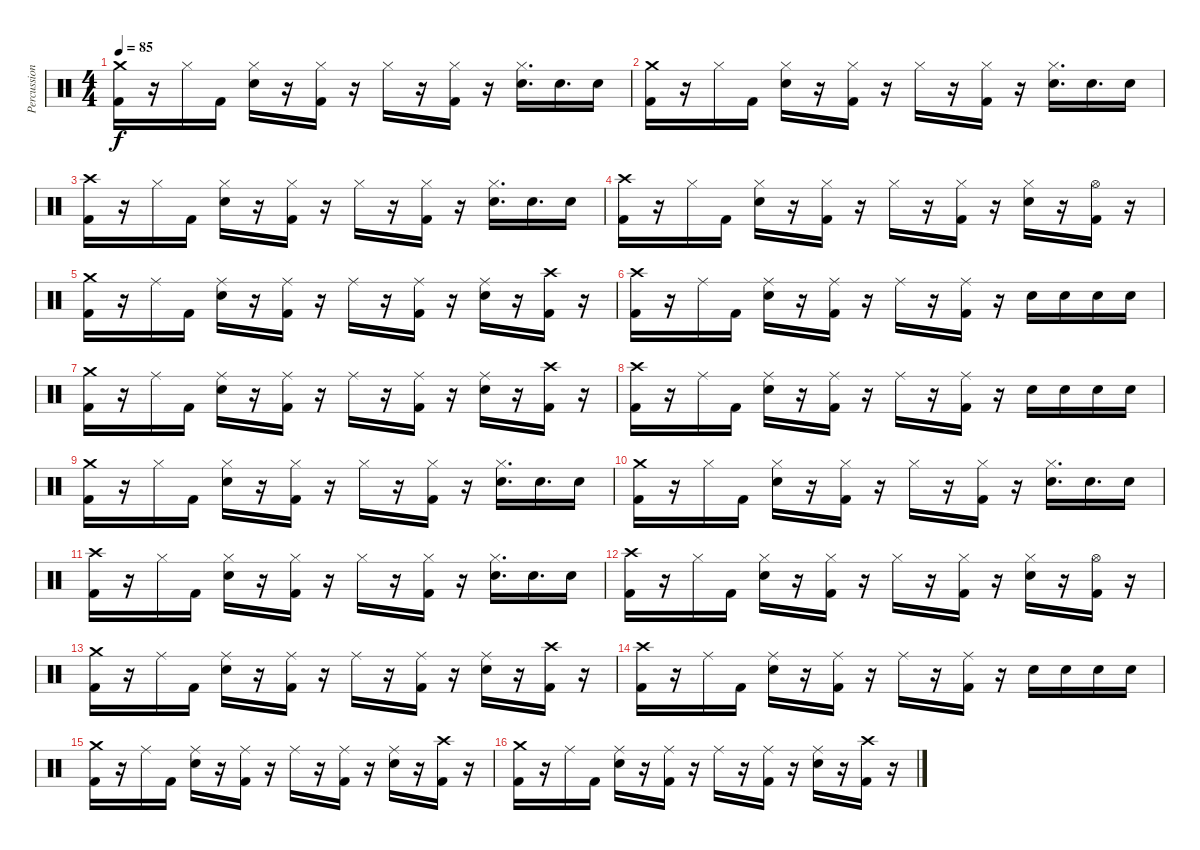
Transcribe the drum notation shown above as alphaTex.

\track ("Percussion" "Percussion") {instrument percussion}
\staff {score}
\articulation defaults
\ts (4 4)
\tempo 85
\clef neutral
\ks c
("Crash medium (hit)" "Kick (hit) 2").16{dy f} r.16 "Hi-Hat (closed)".16 "Kick (hit) 2".16 ("Hi-Hat (closed)" "Electric Snare (hit)").16 r.16 ("Hi-Hat (closed)" "Kick (hit) 2").16 r.16 "Hi-Hat (closed)".16 r.16 ("Hi-Hat (closed)" "Kick (hit) 2").16 r.16 ("Hi-Hat (closed)" "Electric Snare (hit)").16{d} "Electric Snare (hit)".16{d} "Electric Snare (hit)".16 |
("Crash medium (hit)" "Kick (hit) 2").16 r.16 "Hi-Hat (closed)".16 "Kick (hit) 2".16 ("Hi-Hat (closed)" "Electric Snare (hit)").16 r.16 ("Hi-Hat (closed)" "Kick (hit) 2").16 r.16 "Hi-Hat (closed)".16 r.16 ("Hi-Hat (closed)" "Kick (hit) 2").16 r.16 ("Hi-Hat (closed)" "Electric Snare (hit)").16{d} "Electric Snare (hit)".16{d} "Electric Snare (hit)".16 |
("Crash high (hit)" "Kick (hit) 2").16 r.16 "Hi-Hat (closed)".16 "Kick (hit) 2".16 ("Hi-Hat (closed)" "Electric Snare (hit)").16 r.16 ("Hi-Hat (closed)" "Kick (hit) 2").16 r.16 "Hi-Hat (closed)".16 r.16 ("Hi-Hat (closed)" "Kick (hit) 2").16 r.16 ("Hi-Hat (closed)" "Electric Snare (hit)").16{d} "Electric Snare (hit)".16{d} "Electric Snare (hit)".16 |
("Crash high (hit)" "Kick (hit) 2").16 r.16 "Hi-Hat (closed)".16 "Kick (hit) 2".16 ("Hi-Hat (closed)" "Electric Snare (hit)").16 r.16 ("Hi-Hat (closed)" "Kick (hit) 2").16 r.16 "Hi-Hat (closed)".16 r.16 ("Hi-Hat (closed)" "Kick (hit) 2").16 r.16 ("Hi-Hat (closed)" "Electric Snare (hit)").16 r.16 ("Hi-Hat (open)" "Kick (hit) 2").16 r.16 |
("Crash medium (hit)" "Kick (hit) 2").16 r.16 "Ride (middle)".16 "Kick (hit) 2".16 ("Ride (middle)" "Electric Snare (hit)").16 r.16 ("Ride (middle)" "Kick (hit) 2").16 r.16 "Ride (middle)".16 r.16 ("Ride (middle)" "Kick (hit) 2").16 r.16 ("Ride (middle)" "Electric Snare (hit)").16 r.16 ("Crash high (hit)" "Kick (hit) 2").16 r.16 |
("Crash high (hit)" "Kick (hit) 2").16 r.16 "Ride (middle)".16 "Kick (hit) 2".16 ("Ride (middle)" "Electric Snare (hit)").16 r.16 ("Ride (middle)" "Kick (hit) 2").16 r.16 "Ride (middle)".16 r.16 ("Ride (middle)" "Kick (hit) 2").16 r.16 "Electric Snare (hit)".16 "Electric Snare (hit)".16 "Electric Snare (hit)".16 "Electric Snare (hit)".16 |
("Crash medium (hit)" "Kick (hit) 2").16 r.16 "Ride (middle)".16 "Kick (hit) 2".16 ("Ride (middle)" "Electric Snare (hit)").16 r.16 ("Ride (middle)" "Kick (hit) 2").16 r.16 "Ride (middle)".16 r.16 ("Ride (middle)" "Kick (hit) 2").16 r.16 ("Ride (middle)" "Electric Snare (hit)").16 r.16 ("Crash high (hit)" "Kick (hit) 2").16 r.16 |
("Crash high (hit)" "Kick (hit) 2").16 r.16 "Ride (middle)".16 "Kick (hit) 2".16 ("Ride (middle)" "Electric Snare (hit)").16 r.16 ("Ride (middle)" "Kick (hit) 2").16 r.16 "Ride (middle)".16 r.16 ("Ride (middle)" "Kick (hit) 2").16 r.16 "Electric Snare (hit)".16 "Electric Snare (hit)".16 "Electric Snare (hit)".16 "Electric Snare (hit)".16 |
("Crash medium (hit)" "Kick (hit) 2").16 r.16 "Hi-Hat (closed)".16 "Kick (hit) 2".16 ("Hi-Hat (closed)" "Electric Snare (hit)").16 r.16 ("Hi-Hat (closed)" "Kick (hit) 2").16 r.16 "Hi-Hat (closed)".16 r.16 ("Hi-Hat (closed)" "Kick (hit) 2").16 r.16 ("Hi-Hat (closed)" "Electric Snare (hit)").16{d} "Electric Snare (hit)".16{d} "Electric Snare (hit)".16 |
("Crash medium (hit)" "Kick (hit) 2").16 r.16 "Hi-Hat (closed)".16 "Kick (hit) 2".16 ("Hi-Hat (closed)" "Electric Snare (hit)").16 r.16 ("Hi-Hat (closed)" "Kick (hit) 2").16 r.16 "Hi-Hat (closed)".16 r.16 ("Hi-Hat (closed)" "Kick (hit) 2").16 r.16 ("Hi-Hat (closed)" "Electric Snare (hit)").16{d} "Electric Snare (hit)".16{d} "Electric Snare (hit)".16 |
("Crash high (hit)" "Kick (hit) 2").16 r.16 "Hi-Hat (closed)".16 "Kick (hit) 2".16 ("Hi-Hat (closed)" "Electric Snare (hit)").16 r.16 ("Hi-Hat (closed)" "Kick (hit) 2").16 r.16 "Hi-Hat (closed)".16 r.16 ("Hi-Hat (closed)" "Kick (hit) 2").16 r.16 ("Hi-Hat (closed)" "Electric Snare (hit)").16{d} "Electric Snare (hit)".16{d} "Electric Snare (hit)".16 |
("Crash high (hit)" "Kick (hit) 2").16 r.16 "Hi-Hat (closed)".16 "Kick (hit) 2".16 ("Hi-Hat (closed)" "Electric Snare (hit)").16 r.16 ("Hi-Hat (closed)" "Kick (hit) 2").16 r.16 "Hi-Hat (closed)".16 r.16 ("Hi-Hat (closed)" "Kick (hit) 2").16 r.16 ("Hi-Hat (closed)" "Electric Snare (hit)").16 r.16 ("Hi-Hat (open)" "Kick (hit) 2").16 r.16 |
("Crash medium (hit)" "Kick (hit) 2").16 r.16 "Ride (middle)".16 "Kick (hit) 2".16 ("Ride (middle)" "Electric Snare (hit)").16 r.16 ("Ride (middle)" "Kick (hit) 2").16 r.16 "Ride (middle)".16 r.16 ("Ride (middle)" "Kick (hit) 2").16 r.16 ("Ride (middle)" "Electric Snare (hit)").16 r.16 ("Crash high (hit)" "Kick (hit) 2").16 r.16 |
("Crash high (hit)" "Kick (hit) 2").16 r.16 "Ride (middle)".16 "Kick (hit) 2".16 ("Ride (middle)" "Electric Snare (hit)").16 r.16 ("Ride (middle)" "Kick (hit) 2").16 r.16 "Ride (middle)".16 r.16 ("Ride (middle)" "Kick (hit) 2").16 r.16 "Electric Snare (hit)".16 "Electric Snare (hit)".16 "Electric Snare (hit)".16 "Electric Snare (hit)".16 |
("Crash medium (hit)" "Kick (hit) 2").16 r.16 "Ride (middle)".16 "Kick (hit) 2".16 ("Ride (middle)" "Electric Snare (hit)").16 r.16 ("Ride (middle)" "Kick (hit) 2").16 r.16 "Ride (middle)".16 r.16 ("Ride (middle)" "Kick (hit) 2").16 r.16 ("Ride (middle)" "Electric Snare (hit)").16 r.16 ("Crash high (hit)" "Kick (hit) 2").16 r.16 |
("Crash medium (hit)" "Kick (hit) 2").16 r.16 "Ride (middle)".16 "Kick (hit) 2".16 ("Ride (middle)" "Electric Snare (hit)").16 r.16 ("Ride (middle)" "Kick (hit) 2").16 r.16 "Ride (middle)".16 r.16 ("Ride (middle)" "Kick (hit) 2").16 r.16 ("Ride (middle)" "Electric Snare (hit)").16 r.16 ("Crash high (hit)" "Kick (hit) 2").16 r.16
